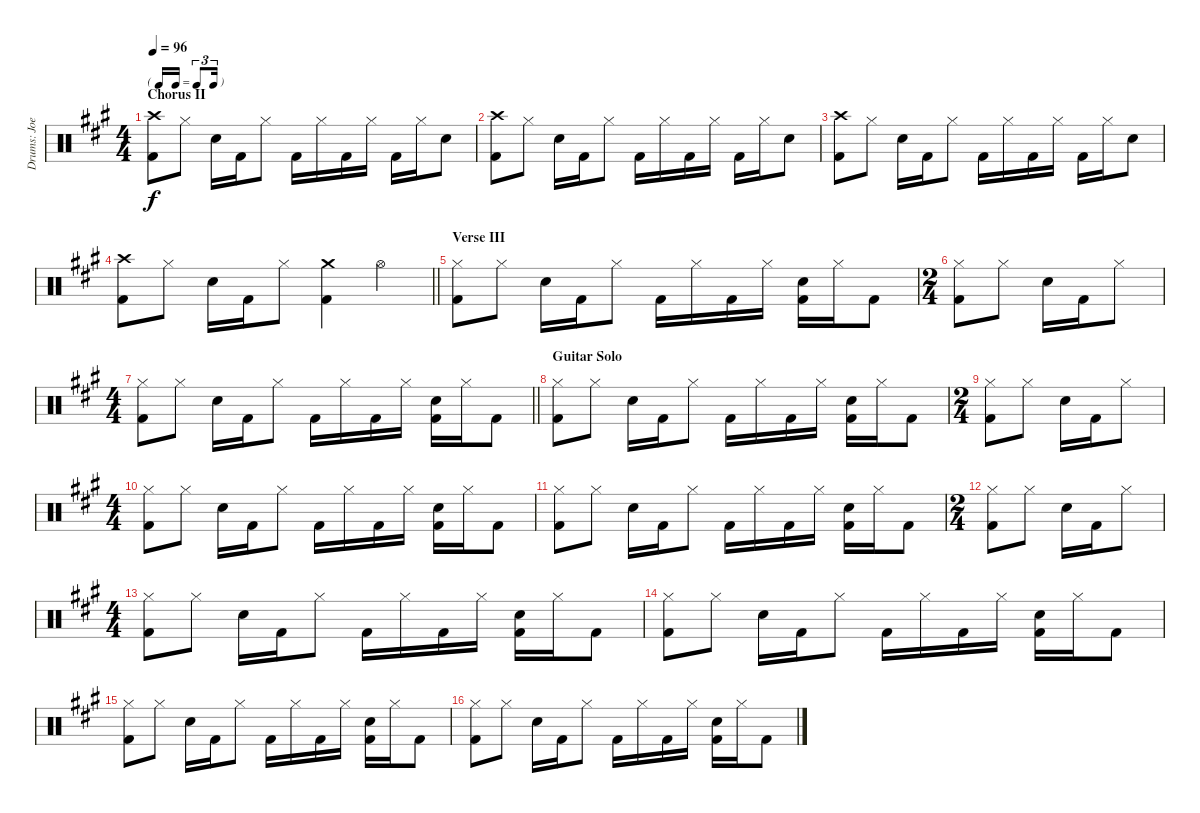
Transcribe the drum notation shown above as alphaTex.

\track ("Drums: Joey" "Drums: Joe") {instrument percussion}
\staff {score}
\articulation defaults
\ts (4 4)
\tf triplet16th
\section ("" "Chorus II")
\tempo 96
\clef neutral
\ks a
("Crash high (hit)" "Kick (hit) 2").8{dy f} "Hi-Hat (closed)".8 "Electric Snare (hit)".16 "Kick (hit) 2".16 "Hi-Hat (closed)".8 "Kick (hit) 2".16 "Hi-Hat (closed)".16 "Kick (hit) 2".16 "Hi-Hat (closed)".16 "Kick (hit) 2".16 "Hi-Hat (closed)".16 "Electric Snare (hit)".8 |
("Crash high (hit)" "Kick (hit) 2").8 "Hi-Hat (closed)".8 "Electric Snare (hit)".16 "Kick (hit) 2".16 "Hi-Hat (closed)".8 "Kick (hit) 2".16 "Hi-Hat (closed)".16 "Kick (hit) 2".16 "Hi-Hat (closed)".16 "Kick (hit) 2".16 "Hi-Hat (closed)".16 "Electric Snare (hit)".8 |
("Crash high (hit)" "Kick (hit) 2").8 "Hi-Hat (closed)".8 "Electric Snare (hit)".16 "Kick (hit) 2".16 "Hi-Hat (closed)".8 "Kick (hit) 2".16 "Hi-Hat (closed)".16 "Kick (hit) 2".16 "Hi-Hat (closed)".16 "Kick (hit) 2".16 "Hi-Hat (closed)".16 "Electric Snare (hit)".8 |
\barLineRight lightlight
("Crash high (hit)" "Kick (hit) 2").8 "Hi-Hat (closed)".8 "Electric Snare (hit)".16 "Kick (hit) 2".16 "Hi-Hat (closed)".8 ("Crash medium (hit)" "Kick (hit) 2").4 "Hi-Hat (open)".4 |
\section ("" "Verse III")
("Hi-Hat (closed)" "Kick (hit) 2").8 "Hi-Hat (closed)".8 "Electric Snare (hit)".16 "Kick (hit) 2".16 "Hi-Hat (closed)".8 "Kick (hit) 2".16 "Hi-Hat (closed)".16 "Kick (hit) 2".16 "Hi-Hat (closed)".16 ("Electric Snare (hit)" "Kick (hit) 2").16 "Hi-Hat (closed)".16 "Kick (hit) 2".8 |
\ts (2 4)
("Hi-Hat (closed)" "Kick (hit) 2").8 "Hi-Hat (closed)".8 "Electric Snare (hit)".16 "Kick (hit) 2".16 "Hi-Hat (closed)".8 |
\ts (4 4)
\barLineRight lightlight
("Hi-Hat (closed)" "Kick (hit) 2").8 "Hi-Hat (closed)".8 "Electric Snare (hit)".16 "Kick (hit) 2".16 "Hi-Hat (closed)".8 "Kick (hit) 2".16 "Hi-Hat (closed)".16 "Kick (hit) 2".16 "Hi-Hat (closed)".16 ("Electric Snare (hit)" "Kick (hit) 2").16 "Hi-Hat (closed)".16 "Kick (hit) 2".8 |
\section ("" "Guitar Solo")
("Hi-Hat (closed)" "Kick (hit) 2").8 "Hi-Hat (closed)".8 "Electric Snare (hit)".16 "Kick (hit) 2".16 "Hi-Hat (closed)".8 "Kick (hit) 2".16 "Hi-Hat (closed)".16 "Kick (hit) 2".16 "Hi-Hat (closed)".16 ("Electric Snare (hit)" "Kick (hit) 2").16 "Hi-Hat (closed)".16 "Kick (hit) 2".8 |
\ts (2 4)
("Hi-Hat (closed)" "Kick (hit) 2").8 "Hi-Hat (closed)".8 "Electric Snare (hit)".16 "Kick (hit) 2".16 "Hi-Hat (closed)".8 |
\ts (4 4)
("Hi-Hat (closed)" "Kick (hit) 2").8 "Hi-Hat (closed)".8 "Electric Snare (hit)".16 "Kick (hit) 2".16 "Hi-Hat (closed)".8 "Kick (hit) 2".16 "Hi-Hat (closed)".16 "Kick (hit) 2".16 "Hi-Hat (closed)".16 ("Electric Snare (hit)" "Kick (hit) 2").16 "Hi-Hat (closed)".16 "Kick (hit) 2".8 |
("Hi-Hat (closed)" "Kick (hit) 2").8 "Hi-Hat (closed)".8 "Electric Snare (hit)".16 "Kick (hit) 2".16 "Hi-Hat (closed)".8 "Kick (hit) 2".16 "Hi-Hat (closed)".16 "Kick (hit) 2".16 "Hi-Hat (closed)".16 ("Electric Snare (hit)" "Kick (hit) 2").16 "Hi-Hat (closed)".16 "Kick (hit) 2".8 |
\ts (2 4)
("Hi-Hat (closed)" "Kick (hit) 2").8 "Hi-Hat (closed)".8 "Electric Snare (hit)".16 "Kick (hit) 2".16 "Hi-Hat (closed)".8 |
\ts (4 4)
("Hi-Hat (closed)" "Kick (hit) 2").8 "Hi-Hat (closed)".8 "Electric Snare (hit)".16 "Kick (hit) 2".16 "Hi-Hat (closed)".8 "Kick (hit) 2".16 "Hi-Hat (closed)".16 "Kick (hit) 2".16 "Hi-Hat (closed)".16 ("Electric Snare (hit)" "Kick (hit) 2").16 "Hi-Hat (closed)".16 "Kick (hit) 2".8 |
("Hi-Hat (closed)" "Kick (hit) 2").8 "Hi-Hat (closed)".8 "Electric Snare (hit)".16 "Kick (hit) 2".16 "Hi-Hat (closed)".8 "Kick (hit) 2".16 "Hi-Hat (closed)".16 "Kick (hit) 2".16 "Hi-Hat (closed)".16 ("Electric Snare (hit)" "Kick (hit) 2").16 "Hi-Hat (closed)".16 "Kick (hit) 2".8 |
("Hi-Hat (closed)" "Kick (hit) 2").8 "Hi-Hat (closed)".8 "Electric Snare (hit)".16 "Kick (hit) 2".16 "Hi-Hat (closed)".8 "Kick (hit) 2".16 "Hi-Hat (closed)".16 "Kick (hit) 2".16 "Hi-Hat (closed)".16 ("Electric Snare (hit)" "Kick (hit) 2").16 "Hi-Hat (closed)".16 "Kick (hit) 2".8 |
("Hi-Hat (closed)" "Kick (hit) 2").8 "Hi-Hat (closed)".8 "Electric Snare (hit)".16 "Kick (hit) 2".16 "Hi-Hat (closed)".8 "Kick (hit) 2".16 "Hi-Hat (closed)".16 "Kick (hit) 2".16 "Hi-Hat (closed)".16 ("Electric Snare (hit)" "Kick (hit) 2").16 "Hi-Hat (closed)".16 "Kick (hit) 2".8
